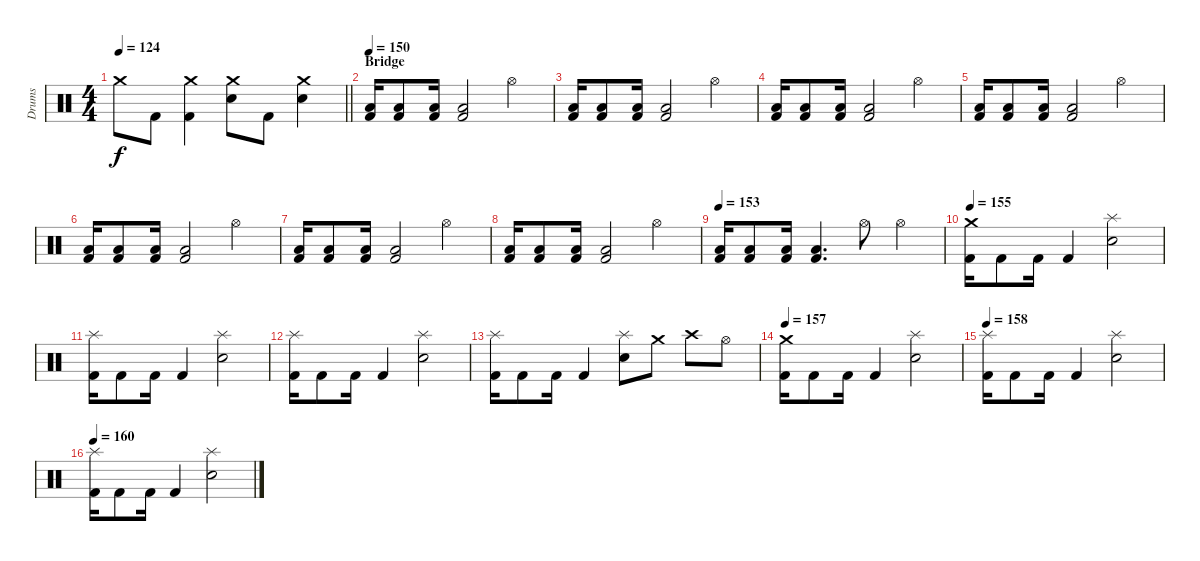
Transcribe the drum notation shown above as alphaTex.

\track ("Drums" "Drums") {instrument percussion}
\staff {score}
\articulation defaults
\ts (4 4)
\tempo 124
\clef neutral
\barLineRight lightlight
\ks c "Crash medium (hit)".8{dy f} "Kick (hit) 2".8
("Crash medium (hit)" "Kick (hit) 2").4 ("Crash medium (hit)" "Snare (hit) 2").8 "Kick (hit) 2".8 ("Crash medium (hit)" "Snare (hit) 2").4 |
\section ("" "Bridge")
\tempo 150
("Low Floor Tom (hit)" "Kick (hit) 2").16 ("Low Floor Tom (hit)" "Kick (hit) 2").8 ("Low Floor Tom (hit)" "Kick (hit) 2").16 ("Low Floor Tom (hit)" "Kick (hit) 2").2 "Hi-Hat (open)".4 |
("Low Floor Tom (hit)" "Kick (hit) 2").16 ("Low Floor Tom (hit)" "Kick (hit) 2").8 ("Low Floor Tom (hit)" "Kick (hit) 2").16 ("Low Floor Tom (hit)" "Kick (hit) 2").2 "Hi-Hat (open)".4 |
("Low Floor Tom (hit)" "Kick (hit) 2").16 ("Low Floor Tom (hit)" "Kick (hit) 2").8 ("Low Floor Tom (hit)" "Kick (hit) 2").16 ("Low Floor Tom (hit)" "Kick (hit) 2").2 "Hi-Hat (open)".4 |
("Low Floor Tom (hit)" "Kick (hit) 2").16 ("Low Floor Tom (hit)" "Kick (hit) 2").8 ("Low Floor Tom (hit)" "Kick (hit) 2").16 ("Low Floor Tom (hit)" "Kick (hit) 2").2 "Hi-Hat (open)".4 |
("Low Floor Tom (hit)" "Kick (hit) 2").16 ("Low Floor Tom (hit)" "Kick (hit) 2").8 ("Low Floor Tom (hit)" "Kick (hit) 2").16 ("Low Floor Tom (hit)" "Kick (hit) 2").2 "Hi-Hat (open)".4 |
("Low Floor Tom (hit)" "Kick (hit) 2").16 ("Low Floor Tom (hit)" "Kick (hit) 2").8 ("Low Floor Tom (hit)" "Kick (hit) 2").16 ("Low Floor Tom (hit)" "Kick (hit) 2").2 "Hi-Hat (open)".4 |
("Low Floor Tom (hit)" "Kick (hit) 2").16 ("Low Floor Tom (hit)" "Kick (hit) 2").8 ("Low Floor Tom (hit)" "Kick (hit) 2").16 ("Low Floor Tom (hit)" "Kick (hit) 2").2 "Hi-Hat (open)".4 |
\tempo 153
("Low Floor Tom (hit)" "Kick (hit) 2").16 ("Low Floor Tom (hit)" "Kick (hit) 2").8 ("Low Floor Tom (hit)" "Kick (hit) 2").16 ("Low Floor Tom (hit)" "Kick (hit) 2").4{d} "Hi-Hat (open)".8 "Hi-Hat (open)".4 |
\tempo 155
("Crash medium (hit)" "Kick (hit) 2").16 "Kick (hit) 2".8 "Kick (hit) 2".16 "Kick (hit) 2".4 ("Splash (hit)" "Snare (hit) 2").2 |
("Splash (hit)" "Kick (hit) 2").16 "Kick (hit) 2".8 "Kick (hit) 2".16 "Kick (hit) 2".4 ("Splash (hit)" "Snare (hit) 2").2 |
("Splash (hit)" "Kick (hit) 2").16 "Kick (hit) 2".8 "Kick (hit) 2".16 "Kick (hit) 2".4 ("Splash (hit)" "Snare (hit) 2").2 |
("Splash (hit)" "Kick (hit) 2").16 "Kick (hit) 2".8 "Kick (hit) 2".16 "Kick (hit) 2".4 ("Splash (hit)" "Snare (hit) 2").8 "Crash medium (hit)".8 "Crash high (hit)".8 "Hi-Hat (open)".8 |
\tempo 157
("Crash medium (hit)" "Kick (hit) 2").16 "Kick (hit) 2".8 "Kick (hit) 2".16 "Kick (hit) 2".4 ("Splash (hit)" "Snare (hit) 2").2 |
\tempo 158
("Splash (hit)" "Kick (hit) 2").16 "Kick (hit) 2".8 "Kick (hit) 2".16 "Kick (hit) 2".4 ("Splash (hit)" "Snare (hit) 2").2 |
\tempo 160
("Splash (hit)" "Kick (hit) 2").16 "Kick (hit) 2".8 "Kick (hit) 2".16 "Kick (hit) 2".4 ("Splash (hit)" "Snare (hit) 2").2
